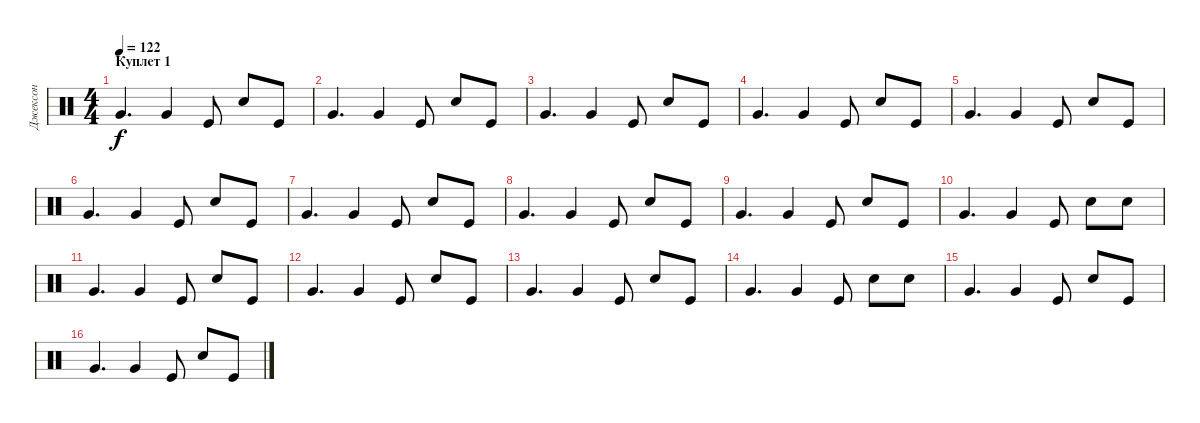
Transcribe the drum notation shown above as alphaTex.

\track ("Джексон" "Джексон") {instrument percussion}
\staff {score}
\articulation defaults
\ts (4 4)
\section ("" "Куплет 1")
\tempo 122
\clef neutral
\ks c "Very Low Tom (hit)".4{d dy f} "Very Low Tom (hit)".4 "Kick (hit)".8 "Snare (hit) 2".8 "Kick (hit)".8
|
"Very Low Tom (hit)".4{d} "Very Low Tom (hit)".4 "Kick (hit)".8 "Snare (hit) 2".8 "Kick (hit)".8 |
"Very Low Tom (hit)".4{d} "Very Low Tom (hit)".4 "Kick (hit)".8 "Snare (hit) 2".8 "Kick (hit)".8 |
"Very Low Tom (hit)".4{d} "Very Low Tom (hit)".4 "Kick (hit)".8 "Snare (hit) 2".8 "Kick (hit)".8 |
"Very Low Tom (hit)".4{d} "Very Low Tom (hit)".4 "Kick (hit)".8 "Snare (hit) 2".8 "Kick (hit)".8 |
"Very Low Tom (hit)".4{d} "Very Low Tom (hit)".4 "Kick (hit)".8 "Snare (hit) 2".8 "Kick (hit)".8 |
"Very Low Tom (hit)".4{d} "Very Low Tom (hit)".4 "Kick (hit)".8 "Snare (hit) 2".8 "Kick (hit)".8 |
"Very Low Tom (hit)".4{d} "Very Low Tom (hit)".4 "Kick (hit)".8 "Snare (hit) 2".8 "Kick (hit)".8 |
"Very Low Tom (hit)".4{d} "Very Low Tom (hit)".4 "Kick (hit)".8 "Snare (hit) 2".8 "Kick (hit)".8 |
"Very Low Tom (hit)".4{d} "Very Low Tom (hit)".4 "Kick (hit)".8 "Snare (hit) 2".8 "Snare (hit) 2".8 |
"Very Low Tom (hit)".4{d} "Very Low Tom (hit)".4 "Kick (hit)".8 "Snare (hit) 2".8 "Kick (hit)".8 |
"Very Low Tom (hit)".4{d} "Very Low Tom (hit)".4 "Kick (hit)".8 "Snare (hit) 2".8 "Kick (hit)".8 |
"Very Low Tom (hit)".4{d} "Very Low Tom (hit)".4 "Kick (hit)".8 "Snare (hit) 2".8 "Kick (hit)".8 |
"Very Low Tom (hit)".4{d} "Very Low Tom (hit)".4 "Kick (hit)".8 "Snare (hit) 2".8 "Snare (hit) 2".8 |
"Very Low Tom (hit)".4{d} "Very Low Tom (hit)".4 "Kick (hit)".8 "Snare (hit) 2".8 "Kick (hit)".8 |
"Very Low Tom (hit)".4{d} "Very Low Tom (hit)".4 "Kick (hit)".8 "Snare (hit) 2".8 "Kick (hit)".8
